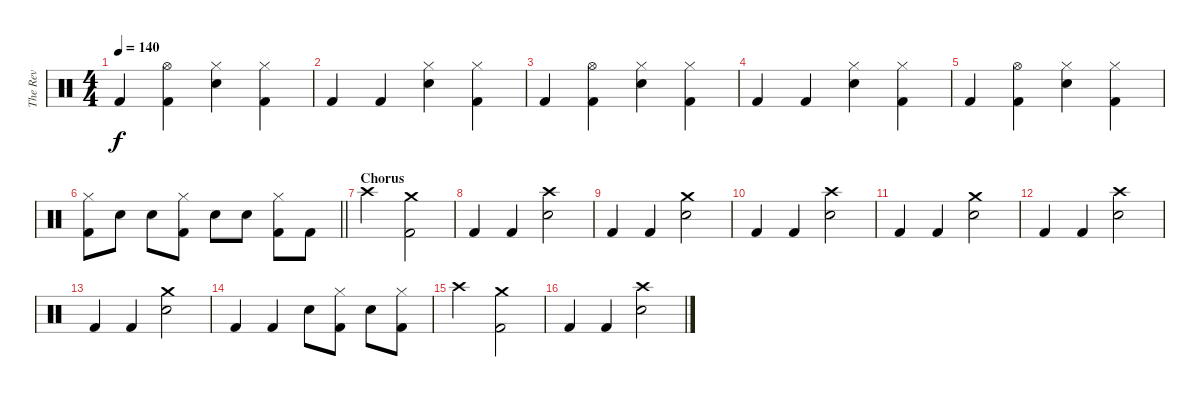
\track ("The Rev" "The Rev") {instrument percussion}
\staff {score}
\articulation defaults
\ts (4 4)
\tempo 140
\clef neutral
\ks c "Kick (hit) 2".4{dy f}
("Hi-Hat (open)" "Kick (hit) 2").4 ("Hi-Hat (closed)" "Snare (hit) 2").4 ("Hi-Hat (closed)" "Kick (hit) 2").4 |
"Kick (hit) 2".4 "Kick (hit) 2".4 ("Hi-Hat (closed)" "Snare (hit) 2").4 ("Hi-Hat (closed)" "Kick (hit) 2").4 |
"Kick (hit) 2".4 ("Hi-Hat (open)" "Kick (hit) 2").4 ("Hi-Hat (closed)" "Snare (hit) 2").4 ("Hi-Hat (closed)" "Kick (hit) 2").4 |
"Kick (hit) 2".4 "Kick (hit) 2".4 ("Hi-Hat (closed)" "Snare (hit) 2").4 ("Hi-Hat (closed)" "Kick (hit) 2").4 |
"Kick (hit) 2".4 ("Hi-Hat (open)" "Kick (hit) 2").4 ("Hi-Hat (closed)" "Snare (hit) 2").4 ("Hi-Hat (closed)" "Kick (hit) 2").4 |
\barLineRight lightlight
("Hi-Hat (closed)" "Kick (hit) 2").8 "Snare (hit) 2".8 "Snare (hit) 2".8 ("Hi-Hat (closed)" "Kick (hit) 2").8 "Snare (hit) 2".8 "Snare (hit) 2".8 ("Hi-Hat (closed)" "Kick (hit) 2").8 "Kick (hit) 2".8 |
\section ("" "Chorus")
"Crash high (hit)".2 ("Crash medium (hit)" "Kick (hit) 2").2 |
"Kick (hit) 2".4 "Kick (hit) 2".4 ("Crash high (hit)" "Snare (hit) 2").2 |
"Kick (hit) 2".4 "Kick (hit) 2".4 ("Crash medium (hit)" "Snare (hit) 2").2 |
"Kick (hit) 2".4 "Kick (hit) 2".4 ("Crash high (hit)" "Snare (hit) 2").2 |
"Kick (hit) 2".4 "Kick (hit) 2".4 ("Crash medium (hit)" "Snare (hit) 2").2 |
"Kick (hit) 2".4 "Kick (hit) 2".4 ("Crash high (hit)" "Snare (hit) 2").2 |
"Kick (hit) 2".4 "Kick (hit) 2".4 ("Crash medium (hit)" "Snare (hit) 2").2 |
"Kick (hit) 2".4 "Kick (hit) 2".4 "Snare (hit) 2".8 ("Hi-Hat (closed)" "Kick (hit) 2").8 "Snare (hit) 2".8 ("Hi-Hat (closed)" "Kick (hit) 2").8 |
"Crash high (hit)".2 ("Crash medium (hit)" "Kick (hit) 2").2 |
"Kick (hit) 2".4 "Kick (hit) 2".4 ("Crash high (hit)" "Snare (hit) 2").2
